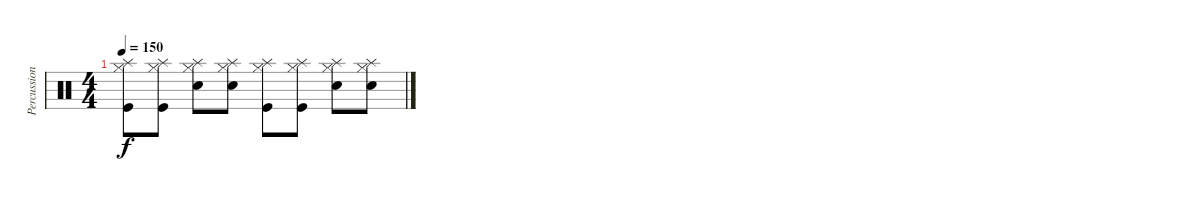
\track ("Percussion" "Percussion") {instrument percussion}
\staff {score}
\articulation defaults
\ts (4 4)
\tempo 150
\clef neutral
\ks c
("Splash (hit)" "Kick (hit)" "Hi-Hat (closed)").8{dy f} ("Splash (hit)" "Kick (hit)" "Hi-Hat (closed)").8 ("Splash (hit)" "Electric Snare (hit)" "Hi-Hat (closed)").8 ("Splash (hit)" "Electric Snare (hit)" "Hi-Hat (closed)").8 ("Splash (hit)" "Kick (hit)" "Hi-Hat (closed)").8 ("Splash (hit)" "Kick (hit)" "Hi-Hat (closed)").8 ("Splash (hit)" "Electric Snare (hit)" "Hi-Hat (closed)").8 ("Splash (hit)" "Electric Snare (hit)" "Hi-Hat (closed)").8
